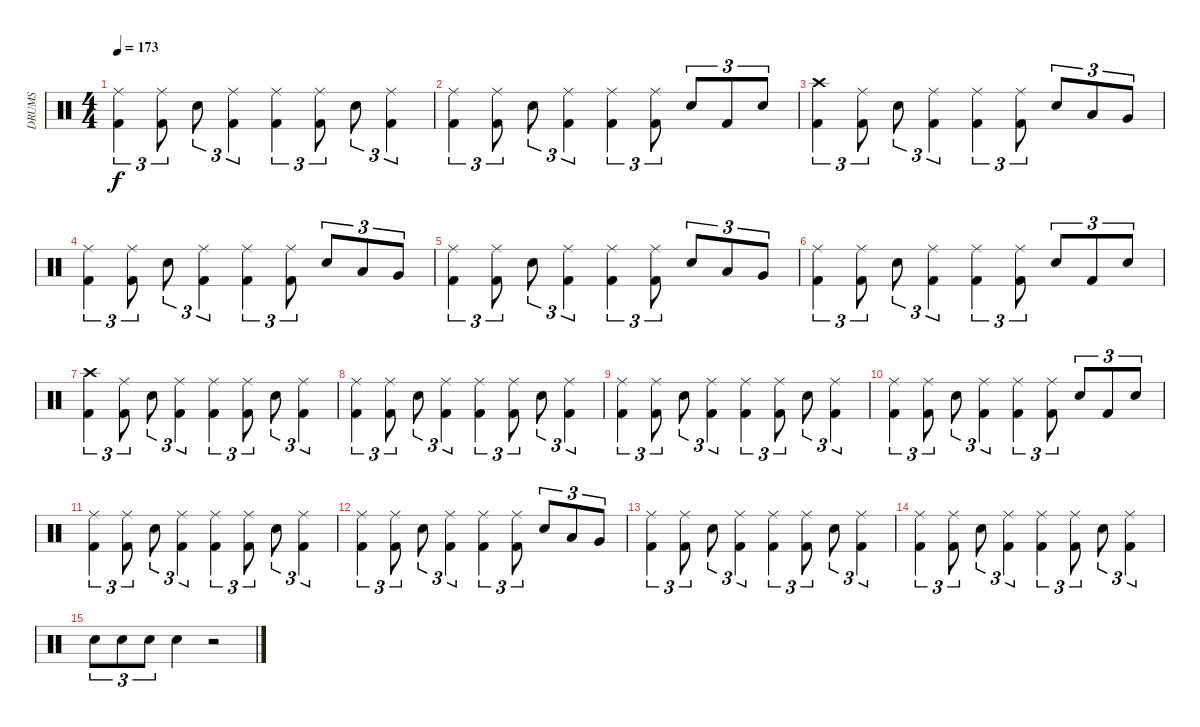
\track ("DRUMS" "DRUMS") {instrument percussion}
\staff {score}
\articulation defaults
\ts (4 4)
\tempo 173
\clef neutral
\ks c
("Ride (middle)" "Kick (hit) 2").4{tu (3 2) dy f} ("Ride (middle)" "Kick (hit) 2").8{tu (3 2)} "Snare (hit) 2".8{tu (3 2)} ("Ride (middle)" "Kick (hit) 2").4{tu (3 2)} ("Ride (middle)" "Kick (hit) 2").4{tu (3 2)} ("Ride (middle)" "Kick (hit) 2").8{tu (3 2)} "Snare (hit) 2".8{tu (3 2)} ("Ride (middle)" "Kick (hit) 2").4{tu (3 2)} |
("Ride (middle)" "Kick (hit) 2").4{tu (3 2)} ("Ride (middle)" "Kick (hit) 2").8{tu (3 2)} "Snare (hit) 2".8{tu (3 2)} ("Ride (middle)" "Kick (hit) 2").4{tu (3 2)} ("Ride (middle)" "Kick (hit) 2").4{tu (3 2)} ("Ride (middle)" "Kick (hit) 2").8{tu (3 2)} "Snare (hit) 2".8{tu (3 2)} "Kick (hit) 2".8{tu (3 2)} "Snare (hit) 2".8{tu (3 2)} |
("Crash high (hit)" "Kick (hit) 2").4{tu (3 2)} ("Ride (middle)" "Kick (hit) 2").8{tu (3 2)} "Snare (hit) 2".8{tu (3 2)} ("Ride (middle)" "Kick (hit) 2").4{tu (3 2)} ("Ride (middle)" "Kick (hit) 2").4{tu (3 2)} ("Ride (middle)" "Kick (hit) 2").8{tu (3 2)} "Snare (hit) 2".8{tu (3 2)} "Low Floor Tom (hit)".8{tu (3 2)} "Very Low Tom (hit)".8{tu (3 2)} |
("Ride (middle)" "Kick (hit) 2").4{tu (3 2)} ("Ride (middle)" "Kick (hit) 2").8{tu (3 2)} "Snare (hit) 2".8{tu (3 2)} ("Ride (middle)" "Kick (hit) 2").4{tu (3 2)} ("Ride (middle)" "Kick (hit) 2").4{tu (3 2)} ("Ride (middle)" "Kick (hit) 2").8{tu (3 2)} "Snare (hit) 2".8{tu (3 2)} "Low Floor Tom (hit)".8{tu (3 2)} "Very Low Tom (hit)".8{tu (3 2)} |
("Ride (middle)" "Kick (hit) 2").4{tu (3 2)} ("Ride (middle)" "Kick (hit) 2").8{tu (3 2)} "Snare (hit) 2".8{tu (3 2)} ("Ride (middle)" "Kick (hit) 2").4{tu (3 2)} ("Ride (middle)" "Kick (hit) 2").4{tu (3 2)} ("Ride (middle)" "Kick (hit) 2").8{tu (3 2)} "Snare (hit) 2".8{tu (3 2)} "Low Floor Tom (hit)".8{tu (3 2)} "Very Low Tom (hit)".8{tu (3 2)} |
("Ride (middle)" "Kick (hit) 2").4{tu (3 2)} ("Ride (middle)" "Kick (hit) 2").8{tu (3 2)} "Snare (hit) 2".8{tu (3 2)} ("Ride (middle)" "Kick (hit) 2").4{tu (3 2)} ("Ride (middle)" "Kick (hit) 2").4{tu (3 2)} ("Ride (middle)" "Kick (hit) 2").8{tu (3 2)} "Snare (hit) 2".8{tu (3 2)} "Kick (hit) 2".8{tu (3 2)} "Snare (hit) 2".8{tu (3 2)} |
("Crash high (hit)" "Kick (hit) 2").4{tu (3 2)} ("Ride (middle)" "Kick (hit) 2").8{tu (3 2)} "Snare (hit) 2".8{tu (3 2)} ("Ride (middle)" "Kick (hit) 2").4{tu (3 2)} ("Ride (middle)" "Kick (hit) 2").4{tu (3 2)} ("Ride (middle)" "Kick (hit) 2").8{tu (3 2)} "Snare (hit) 2".8{tu (3 2)} ("Ride (middle)" "Kick (hit) 2").4{tu (3 2)} |
("Ride (middle)" "Kick (hit) 2").4{tu (3 2)} ("Ride (middle)" "Kick (hit) 2").8{tu (3 2)} "Snare (hit) 2".8{tu (3 2)} ("Ride (middle)" "Kick (hit) 2").4{tu (3 2)} ("Ride (middle)" "Kick (hit) 2").4{tu (3 2)} ("Ride (middle)" "Kick (hit) 2").8{tu (3 2)} "Snare (hit) 2".8{tu (3 2)} ("Ride (middle)" "Kick (hit) 2").4{tu (3 2)} |
("Ride (middle)" "Kick (hit) 2").4{tu (3 2)} ("Ride (middle)" "Kick (hit) 2").8{tu (3 2)} "Snare (hit) 2".8{tu (3 2)} ("Ride (middle)" "Kick (hit) 2").4{tu (3 2)} ("Ride (middle)" "Kick (hit) 2").4{tu (3 2)} ("Ride (middle)" "Kick (hit) 2").8{tu (3 2)} "Snare (hit) 2".8{tu (3 2)} ("Ride (middle)" "Kick (hit) 2").4{tu (3 2)} |
("Ride (middle)" "Kick (hit) 2").4{tu (3 2)} ("Ride (middle)" "Kick (hit) 2").8{tu (3 2)} "Snare (hit) 2".8{tu (3 2)} ("Ride (middle)" "Kick (hit) 2").4{tu (3 2)} ("Ride (middle)" "Kick (hit) 2").4{tu (3 2)} ("Ride (middle)" "Kick (hit) 2").8{tu (3 2)} "Snare (hit) 2".8{tu (3 2)} "Kick (hit) 2".8{tu (3 2)} "Snare (hit) 2".8{tu (3 2)} |
("Ride (middle)" "Kick (hit) 2").4{tu (3 2)} ("Ride (middle)" "Kick (hit) 2").8{tu (3 2)} "Snare (hit) 2".8{tu (3 2)} ("Ride (middle)" "Kick (hit) 2").4{tu (3 2)} ("Ride (middle)" "Kick (hit) 2").4{tu (3 2)} ("Ride (middle)" "Kick (hit) 2").8{tu (3 2)} "Snare (hit) 2".8{tu (3 2)} ("Ride (middle)" "Kick (hit) 2").4{tu (3 2)} |
("Ride (middle)" "Kick (hit) 2").4{tu (3 2)} ("Ride (middle)" "Kick (hit) 2").8{tu (3 2)} "Snare (hit) 2".8{tu (3 2)} ("Ride (middle)" "Kick (hit) 2").4{tu (3 2)} ("Ride (middle)" "Kick (hit) 2").4{tu (3 2)} ("Ride (middle)" "Kick (hit) 2").8{tu (3 2)} "Snare (hit) 2".8{tu (3 2)} "Low Floor Tom (hit)".8{tu (3 2)} "Very Low Tom (hit)".8{tu (3 2)} |
("Ride (middle)" "Kick (hit) 2").4{tu (3 2)} ("Ride (middle)" "Kick (hit) 2").8{tu (3 2)} "Snare (hit) 2".8{tu (3 2)} ("Ride (middle)" "Kick (hit) 2").4{tu (3 2)} ("Ride (middle)" "Kick (hit) 2").4{tu (3 2)} ("Ride (middle)" "Kick (hit) 2").8{tu (3 2)} "Snare (hit) 2".8{tu (3 2)} ("Ride (middle)" "Kick (hit) 2").4{tu (3 2)} |
("Ride (middle)" "Kick (hit) 2").4{tu (3 2)} ("Ride (middle)" "Kick (hit) 2").8{tu (3 2)} "Snare (hit) 2".8{tu (3 2)} ("Ride (middle)" "Kick (hit) 2").4{tu (3 2)} ("Ride (middle)" "Kick (hit) 2").4{tu (3 2)} ("Ride (middle)" "Kick (hit) 2").8{tu (3 2)} "Snare (hit) 2".8{tu (3 2)} ("Ride (middle)" "Kick (hit) 2").4{tu (3 2)} |
"Snare (hit) 2".8{tu (3 2)} "Snare (hit) 2".8{tu (3 2)} "Snare (hit) 2".8{tu (3 2)} "Snare (hit) 2".4 r.2
